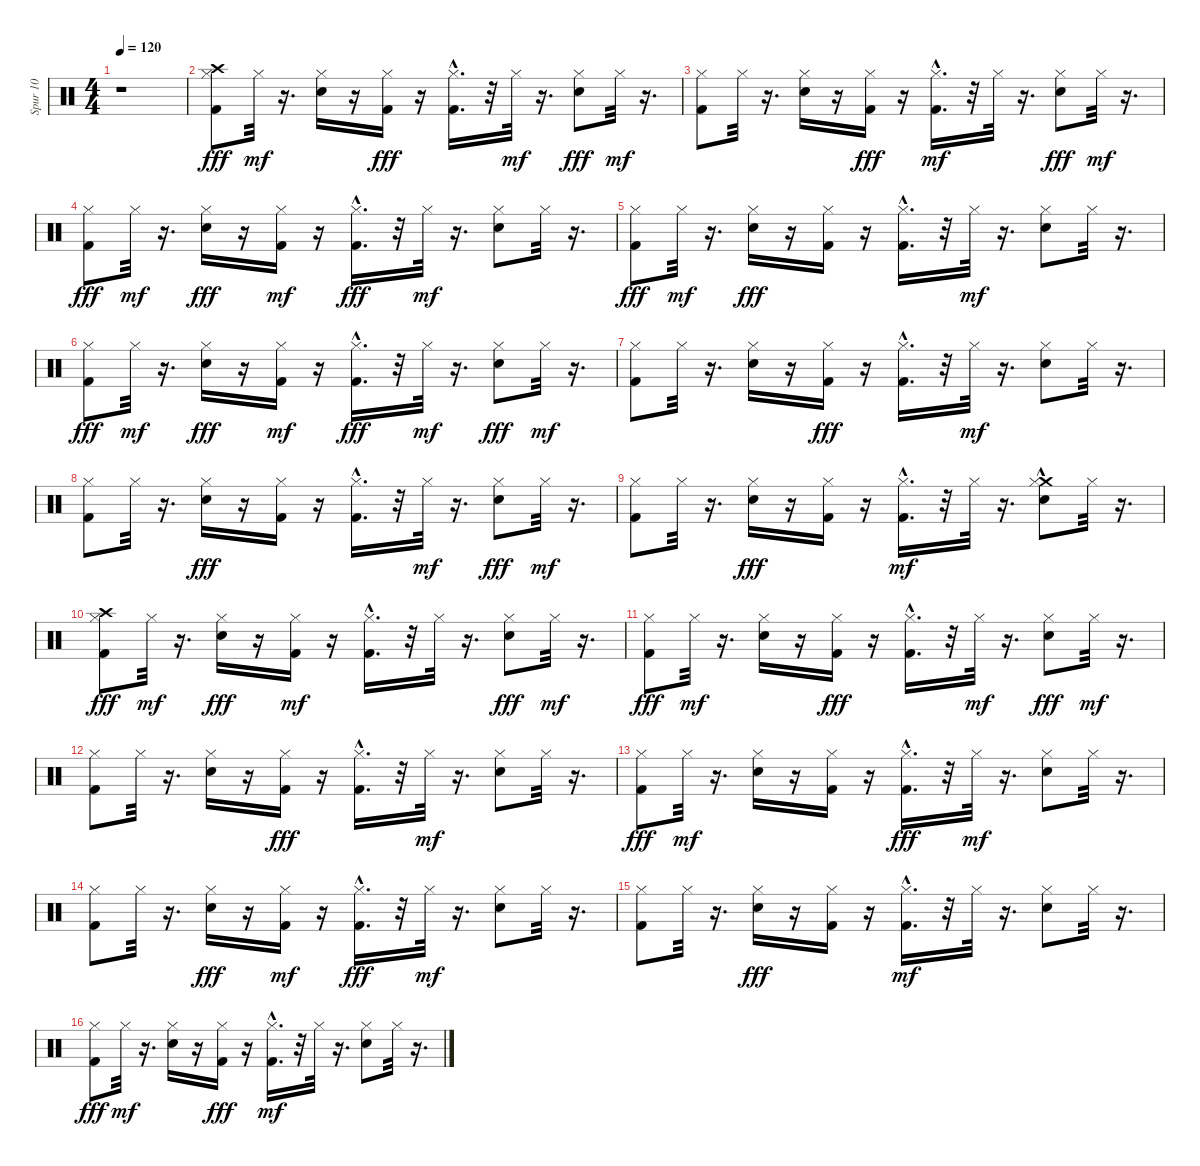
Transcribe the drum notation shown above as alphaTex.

\track ("Spur 10" "Spur 10") {instrument percussion}
\staff {score}
\articulation defaults
\ts (4 4)
\tempo 120
\clef neutral
\ks c
r.1{dy fff} |
("Crash high (hit)" "Hi-Hat (closed)" "Kick (hit) 2").8 "Hi-Hat (closed)".32{dy mf} r.16{d} ("Electric Snare (hit)" "Hi-Hat (closed)").16 r.16 ("Hi-Hat (closed)" "Kick (hit) 2").16{dy fff} r.16 ("Hi-Hat (closed)" "Kick (hit) 2"{hac}).16{d} r.32 "Hi-Hat (closed)".32{dy mf} r.16{d} ("Hi-Hat (closed)" "Electric Snare (hit)").8{dy fff} "Hi-Hat (closed)".32{dy mf} r.16{d} |
("Kick (hit) 2" "Hi-Hat (closed)").8 "Hi-Hat (closed)".32 r.16{d} ("Electric Snare (hit)" "Hi-Hat (closed)").16 r.16 ("Hi-Hat (closed)" "Kick (hit) 2").16{dy fff} r.16 ("Kick (hit) 2"{hac} "Hi-Hat (closed)").16{d dy mf} r.32 "Hi-Hat (closed)".32 r.16{d} ("Hi-Hat (closed)" "Electric Snare (hit)").8{dy fff} "Hi-Hat (closed)".32{dy mf} r.16{d} |
("Hi-Hat (closed)" "Kick (hit) 2").8{dy fff} "Hi-Hat (closed)".32{dy mf} r.16{d} ("Hi-Hat (closed)" "Electric Snare (hit)").16{dy fff} r.16 ("Kick (hit) 2" "Hi-Hat (closed)").16{dy mf} r.16 ("Hi-Hat (closed)" "Kick (hit) 2"{hac}).16{d dy fff} r.32 "Hi-Hat (closed)".32{dy mf} r.16{d} ("Electric Snare (hit)" "Hi-Hat (closed)").8 "Hi-Hat (closed)".32 r.16{d} |
("Hi-Hat (closed)" "Kick (hit) 2").8{dy fff} "Hi-Hat (closed)".32{dy mf} r.16{d} ("Hi-Hat (closed)" "Electric Snare (hit)").16{dy fff} r.16 ("Hi-Hat (closed)" "Kick (hit) 2").16 r.16 ("Hi-Hat (closed)" "Kick (hit) 2"{hac}).16{d} r.32 "Hi-Hat (closed)".32{dy mf} r.16{d} ("Electric Snare (hit)" "Hi-Hat (closed)").8 "Hi-Hat (closed)".32 r.16{d} |
("Hi-Hat (closed)" "Kick (hit) 2").8{dy fff} "Hi-Hat (closed)".32{dy mf} r.16{d} ("Hi-Hat (closed)" "Electric Snare (hit)").16{dy fff} r.16 ("Kick (hit) 2" "Hi-Hat (closed)").16{dy mf} r.16 ("Hi-Hat (closed)" "Kick (hit) 2"{hac}).16{d dy fff} r.32 "Hi-Hat (closed)".32{dy mf} r.16{d} ("Hi-Hat (closed)" "Electric Snare (hit)").8{dy fff} "Hi-Hat (closed)".32{dy mf} r.16{d} |
("Kick (hit) 2" "Hi-Hat (closed)").8 "Hi-Hat (closed)".32 r.16{d} ("Electric Snare (hit)" "Hi-Hat (closed)").16 r.16 ("Hi-Hat (closed)" "Kick (hit) 2").16{dy fff} r.16 ("Hi-Hat (closed)" "Kick (hit) 2"{hac}).16{d} r.32 "Hi-Hat (closed)".32{dy mf} r.16{d} ("Electric Snare (hit)" "Hi-Hat (closed)").8 "Hi-Hat (closed)".32 r.16{d} |
("Kick (hit) 2" "Hi-Hat (closed)").8 "Hi-Hat (closed)".32 r.16{d} ("Hi-Hat (closed)" "Electric Snare (hit)").16{dy fff} r.16 ("Hi-Hat (closed)" "Kick (hit) 2").16 r.16 ("Hi-Hat (closed)" "Kick (hit) 2"{hac}).16{d} r.32 "Hi-Hat (closed)".32{dy mf} r.16{d} ("Hi-Hat (closed)" "Electric Snare (hit)").8{dy fff} "Hi-Hat (closed)".32{dy mf} r.16{d} |
("Kick (hit) 2" "Hi-Hat (closed)").8 "Hi-Hat (closed)".32 r.16{d} ("Hi-Hat (closed)" "Electric Snare (hit)").16{dy fff} r.16 ("Hi-Hat (closed)" "Kick (hit) 2").16 r.16 ("Kick (hit) 2"{hac} "Hi-Hat (closed)").16{d dy mf} r.32 "Hi-Hat (closed)".32 r.16{d} ("Crash medium (hit)"{hac} "Electric Snare (hit)" "Hi-Hat (closed)").8 "Hi-Hat (closed)".32 r.16{d} |
("Hi-Hat (closed)" "Crash high (hit)" "Kick (hit) 2").8{dy fff} "Hi-Hat (closed)".32{dy mf} r.16{d} ("Hi-Hat (closed)" "Electric Snare (hit)").16{dy fff} r.16 ("Kick (hit) 2" "Hi-Hat (closed)").16{dy mf} r.16 ("Kick (hit) 2"{hac} "Hi-Hat (closed)").16{d} r.32 "Hi-Hat (closed)".32 r.16{d} ("Hi-Hat (closed)" "Electric Snare (hit)").8{dy fff} "Hi-Hat (closed)".32{dy mf} r.16{d} |
("Hi-Hat (closed)" "Kick (hit) 2").8{dy fff} "Hi-Hat (closed)".32{dy mf} r.16{d} ("Electric Snare (hit)" "Hi-Hat (closed)").16 r.16 ("Hi-Hat (closed)" "Kick (hit) 2").16{dy fff} r.16 ("Hi-Hat (closed)" "Kick (hit) 2"{hac}).16{d} r.32 "Hi-Hat (closed)".32{dy mf} r.16{d} ("Hi-Hat (closed)" "Electric Snare (hit)").8{dy fff} "Hi-Hat (closed)".32{dy mf} r.16{d} |
("Kick (hit) 2" "Hi-Hat (closed)").8 "Hi-Hat (closed)".32 r.16{d} ("Electric Snare (hit)" "Hi-Hat (closed)").16 r.16 ("Hi-Hat (closed)" "Kick (hit) 2").16{dy fff} r.16 ("Hi-Hat (closed)" "Kick (hit) 2"{hac}).16{d} r.32 "Hi-Hat (closed)".32{dy mf} r.16{d} ("Electric Snare (hit)" "Hi-Hat (closed)").8 "Hi-Hat (closed)".32 r.16{d} |
("Hi-Hat (closed)" "Kick (hit) 2").8{dy fff} "Hi-Hat (closed)".32{dy mf} r.16{d} ("Electric Snare (hit)" "Hi-Hat (closed)").16 r.16 ("Kick (hit) 2" "Hi-Hat (closed)").16 r.16 ("Hi-Hat (closed)" "Kick (hit) 2"{hac}).16{d dy fff} r.32 "Hi-Hat (closed)".32{dy mf} r.16{d} ("Electric Snare (hit)" "Hi-Hat (closed)").8 "Hi-Hat (closed)".32 r.16{d} |
("Kick (hit) 2" "Hi-Hat (closed)").8 "Hi-Hat (closed)".32 r.16{d} ("Hi-Hat (closed)" "Electric Snare (hit)").16{dy fff} r.16 ("Kick (hit) 2" "Hi-Hat (closed)").16{dy mf} r.16 ("Hi-Hat (closed)" "Kick (hit) 2"{hac}).16{d dy fff} r.32 "Hi-Hat (closed)".32{dy mf} r.16{d} ("Electric Snare (hit)" "Hi-Hat (closed)").8 "Hi-Hat (closed)".32 r.16{d} |
("Kick (hit) 2" "Hi-Hat (closed)").8 "Hi-Hat (closed)".32 r.16{d} ("Hi-Hat (closed)" "Electric Snare (hit)").16{dy fff} r.16 ("Hi-Hat (closed)" "Kick (hit) 2").16 r.16 ("Kick (hit) 2"{hac} "Hi-Hat (closed)").16{d dy mf} r.32 "Hi-Hat (closed)".32 r.16{d} ("Electric Snare (hit)" "Hi-Hat (closed)").8 "Hi-Hat (closed)".32 r.16{d} |
("Hi-Hat (closed)" "Kick (hit) 2").8{dy fff} "Hi-Hat (closed)".32{dy mf} r.16{d} ("Electric Snare (hit)" "Hi-Hat (closed)").16 r.16 ("Hi-Hat (closed)" "Kick (hit) 2").16{dy fff} r.16 ("Kick (hit) 2"{hac} "Hi-Hat (closed)").16{d dy mf} r.32 "Hi-Hat (closed)".32 r.16{d} ("Electric Snare (hit)" "Hi-Hat (closed)").8 "Hi-Hat (closed)".32 r.16{d}
